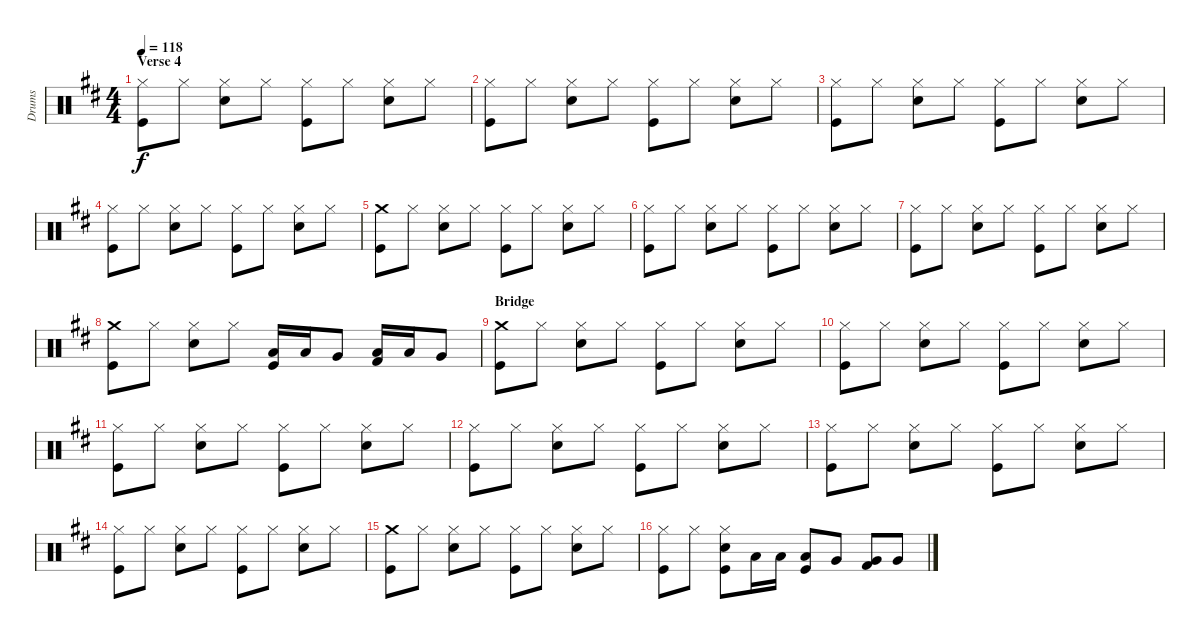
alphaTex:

\track ("Drums" "Drums") {instrument percussion}
\staff {score}
\articulation defaults
\ts (4 4)
\section ("" "Verse 4")
\tempo 118
\clef neutral
\ks d
("Hi-Hat (closed)" "Kick (hit)").8{dy f} "Hi-Hat (closed)".8 ("Hi-Hat (closed)" "Electric Snare (hit)").8 "Hi-Hat (closed)".8 ("Hi-Hat (closed)" "Kick (hit)").8 "Hi-Hat (closed)".8 ("Hi-Hat (closed)" "Electric Snare (hit)").8 "Hi-Hat (closed)".8 |
("Hi-Hat (closed)" "Kick (hit)").8 "Hi-Hat (closed)".8 ("Hi-Hat (closed)" "Electric Snare (hit)").8 "Hi-Hat (closed)".8 ("Hi-Hat (closed)" "Kick (hit)").8 "Hi-Hat (closed)".8 ("Hi-Hat (closed)" "Electric Snare (hit)").8 "Hi-Hat (closed)".8 |
("Hi-Hat (closed)" "Kick (hit)").8 "Hi-Hat (closed)".8 ("Hi-Hat (closed)" "Electric Snare (hit)").8 "Hi-Hat (closed)".8 ("Hi-Hat (closed)" "Kick (hit)").8 "Hi-Hat (closed)".8 ("Hi-Hat (closed)" "Electric Snare (hit)").8 "Hi-Hat (closed)".8 |
("Hi-Hat (closed)" "Kick (hit)").8 "Hi-Hat (closed)".8 ("Hi-Hat (closed)" "Electric Snare (hit)").8 "Hi-Hat (closed)".8 ("Hi-Hat (closed)" "Kick (hit)").8 "Hi-Hat (closed)".8 ("Hi-Hat (closed)" "Electric Snare (hit)").8 "Hi-Hat (closed)".8 |
("Crash medium (hit)" "Kick (hit)").8 "Hi-Hat (closed)".8 ("Hi-Hat (closed)" "Electric Snare (hit)").8 "Hi-Hat (closed)".8 ("Hi-Hat (closed)" "Kick (hit)").8 "Hi-Hat (closed)".8 ("Hi-Hat (closed)" "Electric Snare (hit)").8 "Hi-Hat (closed)".8 |
("Hi-Hat (closed)" "Kick (hit)").8 "Hi-Hat (closed)".8 ("Hi-Hat (closed)" "Electric Snare (hit)").8 "Hi-Hat (closed)".8 ("Hi-Hat (closed)" "Kick (hit)").8 "Hi-Hat (closed)".8 ("Hi-Hat (closed)" "Electric Snare (hit)").8 "Hi-Hat (closed)".8 |
("Hi-Hat (closed)" "Kick (hit)").8 "Hi-Hat (closed)".8 ("Hi-Hat (closed)" "Electric Snare (hit)").8 "Hi-Hat (closed)".8 ("Hi-Hat (closed)" "Kick (hit)").8 "Hi-Hat (closed)".8 ("Hi-Hat (closed)" "Electric Snare (hit)").8 "Hi-Hat (closed)".8 |
("Crash medium (hit)" "Kick (hit)").8 "Hi-Hat (closed)".8 ("Hi-Hat (closed)" "Electric Snare (hit)").8 "Hi-Hat (closed)".8 ("Low Tom (hit)" "Kick (hit)").16 "Low Tom (hit)".16 "Very Low Tom (hit)".8 ("Low Tom (hit)" "Kick (hit) 2").16 "Low Tom (hit)".16 "Very Low Tom (hit)".8 |
\section ("" "Bridge")
("Crash medium (hit)" "Kick (hit)").8 "Hi-Hat (closed)".8 ("Hi-Hat (closed)" "Electric Snare (hit)").8 "Hi-Hat (closed)".8 ("Hi-Hat (closed)" "Kick (hit)").8 "Hi-Hat (closed)".8 ("Hi-Hat (closed)" "Electric Snare (hit)").8 "Hi-Hat (closed)".8 |
("Hi-Hat (closed)" "Kick (hit)").8 "Hi-Hat (closed)".8 ("Hi-Hat (closed)" "Electric Snare (hit)").8 "Hi-Hat (closed)".8 ("Hi-Hat (closed)" "Kick (hit)").8 "Hi-Hat (closed)".8 ("Hi-Hat (closed)" "Electric Snare (hit)").8 "Hi-Hat (closed)".8 |
("Hi-Hat (closed)" "Kick (hit)").8 "Hi-Hat (closed)".8 ("Hi-Hat (closed)" "Electric Snare (hit)").8 "Hi-Hat (closed)".8 ("Hi-Hat (closed)" "Kick (hit)").8 "Hi-Hat (closed)".8 ("Hi-Hat (closed)" "Electric Snare (hit)").8 "Hi-Hat (closed)".8 |
("Hi-Hat (closed)" "Kick (hit)").8 "Hi-Hat (closed)".8 ("Hi-Hat (closed)" "Electric Snare (hit)").8 "Hi-Hat (closed)".8 ("Hi-Hat (closed)" "Kick (hit)").8 "Hi-Hat (closed)".8 ("Hi-Hat (closed)" "Electric Snare (hit)").8 "Hi-Hat (closed)".8 |
("Hi-Hat (closed)" "Kick (hit)").8 "Hi-Hat (closed)".8 ("Hi-Hat (closed)" "Electric Snare (hit)").8 "Hi-Hat (closed)".8 ("Hi-Hat (closed)" "Kick (hit)").8 "Hi-Hat (closed)".8 ("Hi-Hat (closed)" "Electric Snare (hit)").8 "Hi-Hat (closed)".8 |
("Hi-Hat (closed)" "Kick (hit)").8 "Hi-Hat (closed)".8 ("Hi-Hat (closed)" "Electric Snare (hit)").8 "Hi-Hat (closed)".8 ("Hi-Hat (closed)" "Kick (hit)").8 "Hi-Hat (closed)".8 ("Hi-Hat (closed)" "Electric Snare (hit)").8 "Hi-Hat (closed)".8 |
("Crash medium (hit)" "Kick (hit)").8 "Hi-Hat (closed)".8 ("Hi-Hat (closed)" "Electric Snare (hit)").8 "Hi-Hat (closed)".8 ("Hi-Hat (closed)" "Kick (hit)").8 "Hi-Hat (closed)".8 ("Hi-Hat (closed)" "Electric Snare (hit)").8 "Hi-Hat (closed)".8 |
("Hi-Hat (closed)" "Kick (hit)").8 "Hi-Hat (closed)".8 ("Hi-Hat (closed)" "Electric Snare (hit)" "Kick (hit)").8 "Low Tom (hit)".16 "Low Tom (hit)".16 ("Low Tom (hit)" "Kick (hit)").8 "Very Low Tom (hit)".8 ("Very Low Tom (hit)" "Kick (hit) 2").8 "Very Low Tom (hit)".8
